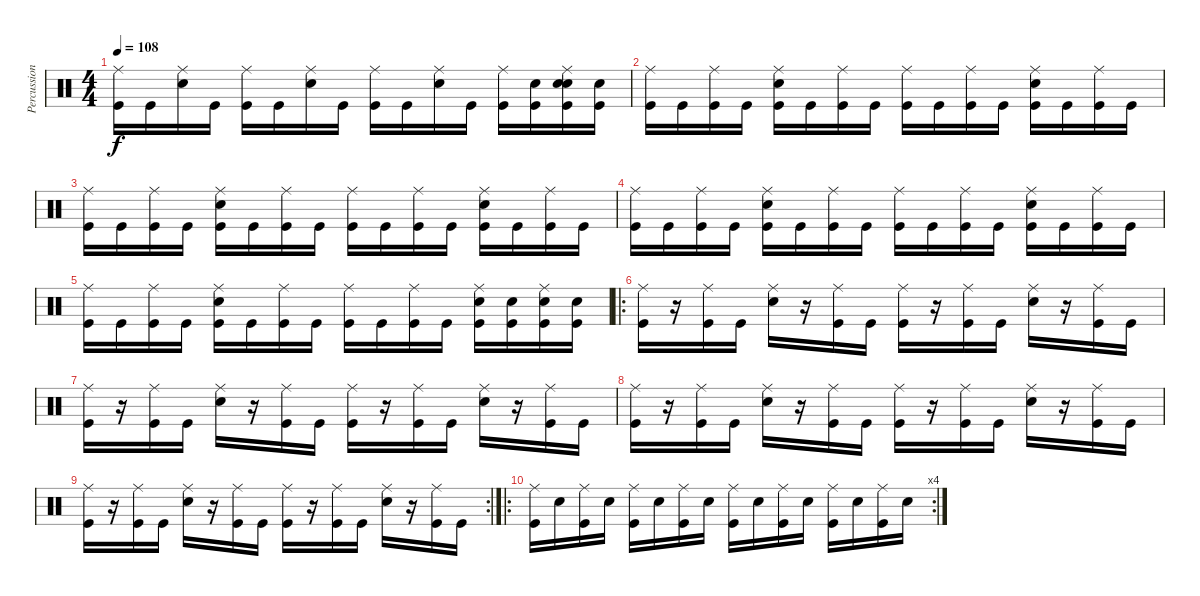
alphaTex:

\track ("Percussions" "Percussion") {instrument percussion}
\staff {score}
\articulation defaults
\ts (4 4)
\tempo 108
\clef neutral
\ks c
("Ride (middle)" "Kick (hit)").16{dy f} "Kick (hit)".16 ("Ride (middle)" "Electric Snare (hit)").16 "Kick (hit)".16 ("Ride (middle)" "Kick (hit)").16 "Kick (hit)".16 ("Ride (middle)" "Electric Snare (hit)").16 "Kick (hit)".16 ("Ride (middle)" "Kick (hit)").16 "Kick (hit)".16 ("Ride (middle)" "Electric Snare (hit)").16 "Kick (hit)".16 ("Ride (middle)" "Kick (hit)").16 ("Electric Snare (hit)" "Kick (hit)").16 ("Ride (middle)" "Electric Snare (hit)" "Electric Snare (hit)" "Kick (hit)").16 ("Electric Snare (hit)" "Kick (hit)").16 |
("Ride (middle)" "Kick (hit)").16 "Kick (hit)".16 ("Ride (middle)" "Kick (hit)").16 "Kick (hit)".16 ("Ride (middle)" "Electric Snare (hit)" "Kick (hit)").16 "Kick (hit)".16 ("Ride (middle)" "Kick (hit)").16 "Kick (hit)".16 ("Ride (middle)" "Kick (hit)").16 "Kick (hit)".16 ("Ride (middle)" "Kick (hit)").16 "Kick (hit)".16 ("Ride (middle)" "Electric Snare (hit)" "Kick (hit)").16 "Kick (hit)".16 ("Ride (middle)" "Kick (hit)").16 "Kick (hit)".16 |
("Ride (middle)" "Kick (hit)").16 "Kick (hit)".16 ("Ride (middle)" "Kick (hit)").16 "Kick (hit)".16 ("Ride (middle)" "Electric Snare (hit)" "Kick (hit)").16 "Kick (hit)".16 ("Ride (middle)" "Kick (hit)").16 "Kick (hit)".16 ("Ride (middle)" "Kick (hit)").16 "Kick (hit)".16 ("Ride (middle)" "Kick (hit)").16 "Kick (hit)".16 ("Ride (middle)" "Electric Snare (hit)" "Kick (hit)").16 "Kick (hit)".16 ("Ride (middle)" "Kick (hit)").16 "Kick (hit)".16 |
("Ride (middle)" "Kick (hit)").16 "Kick (hit)".16 ("Ride (middle)" "Kick (hit)").16 "Kick (hit)".16 ("Ride (middle)" "Electric Snare (hit)" "Kick (hit)").16 "Kick (hit)".16 ("Ride (middle)" "Kick (hit)").16 "Kick (hit)".16 ("Ride (middle)" "Kick (hit)").16 "Kick (hit)".16 ("Ride (middle)" "Kick (hit)").16 "Kick (hit)".16 ("Ride (middle)" "Electric Snare (hit)" "Kick (hit)").16 "Kick (hit)".16 ("Ride (middle)" "Kick (hit)").16 "Kick (hit)".16 |
("Ride (middle)" "Kick (hit)").16 "Kick (hit)".16 ("Ride (middle)" "Kick (hit)").16 "Kick (hit)".16 ("Ride (middle)" "Electric Snare (hit)" "Kick (hit)").16 "Kick (hit)".16 ("Ride (middle)" "Kick (hit)").16 "Kick (hit)".16 ("Ride (middle)" "Kick (hit)").16 "Kick (hit)".16 ("Ride (middle)" "Kick (hit)").16 "Kick (hit)".16 ("Ride (middle)" "Electric Snare (hit)" "Kick (hit)").16 ("Electric Snare (hit)" "Kick (hit)").16 ("Ride (middle)" "Electric Snare (hit)" "Kick (hit)").16 ("Electric Snare (hit)" "Kick (hit)").16 |
\ro
("Ride (middle)" "Kick (hit)").16 r.16 ("Ride (middle)" "Kick (hit)").16 "Kick (hit)".16 ("Ride (middle)" "Electric Snare (hit)").16 r.16 ("Ride (middle)" "Kick (hit)").16 "Kick (hit)".16 ("Ride (middle)" "Kick (hit)").16 r.16 ("Ride (middle)" "Kick (hit)").16 "Kick (hit)".16 ("Ride (middle)" "Electric Snare (hit)").16 r.16 ("Ride (middle)" "Kick (hit)").16 "Kick (hit)".16 |
("Ride (middle)" "Kick (hit)").16 r.16 ("Ride (middle)" "Kick (hit)").16 "Kick (hit)".16 ("Ride (middle)" "Electric Snare (hit)").16 r.16 ("Ride (middle)" "Kick (hit)").16 "Kick (hit)".16 ("Ride (middle)" "Kick (hit)").16 r.16 ("Ride (middle)" "Kick (hit)").16 "Kick (hit)".16 ("Ride (middle)" "Electric Snare (hit)").16 r.16 ("Ride (middle)" "Kick (hit)").16 "Kick (hit)".16 |
("Ride (middle)" "Kick (hit)").16 r.16 ("Ride (middle)" "Kick (hit)").16 "Kick (hit)".16 ("Ride (middle)" "Electric Snare (hit)").16 r.16 ("Ride (middle)" "Kick (hit)").16 "Kick (hit)".16 ("Ride (middle)" "Kick (hit)").16 r.16 ("Ride (middle)" "Kick (hit)").16 "Kick (hit)".16 ("Ride (middle)" "Electric Snare (hit)").16 r.16 ("Ride (middle)" "Kick (hit)").16 "Kick (hit)".16 |
\rc 2
("Ride (middle)" "Kick (hit)").16 r.16 ("Ride (middle)" "Kick (hit)").16 "Kick (hit)".16 ("Ride (middle)" "Electric Snare (hit)").16 r.16 ("Ride (middle)" "Kick (hit)").16 "Kick (hit)".16 ("Ride (middle)" "Kick (hit)").16 r.16 ("Ride (middle)" "Kick (hit)").16 "Kick (hit)".16 ("Ride (middle)" "Electric Snare (hit)").16 r.16 ("Ride (middle)" "Kick (hit)").16 "Kick (hit)".16 |
\ro
\rc 4
("Ride (middle)" "Kick (hit)").16 "Electric Snare (hit)".16 ("Ride (middle)" "Kick (hit)").16 "Electric Snare (hit)".16 ("Ride (middle)" "Kick (hit)").16 "Electric Snare (hit)".16 ("Ride (middle)" "Kick (hit)").16 "Electric Snare (hit)".16 ("Ride (middle)" "Kick (hit)").16 "Electric Snare (hit)".16 ("Ride (middle)" "Kick (hit)").16 "Electric Snare (hit)".16 ("Ride (middle)" "Kick (hit)").16 "Electric Snare (hit)".16 ("Ride (middle)" "Kick (hit)").16 "Electric Snare (hit)".16
